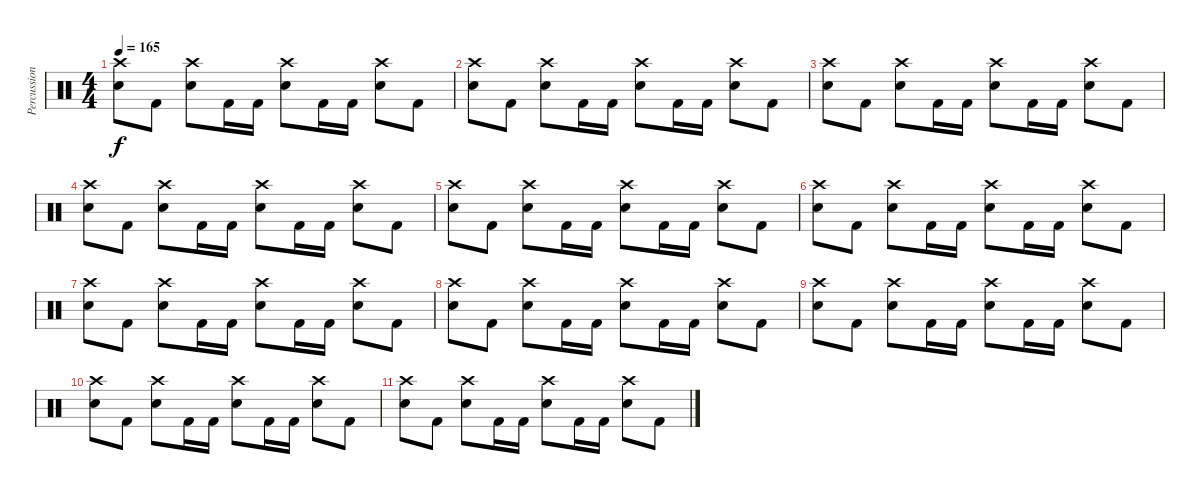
\track ("Percussion" "Percussion") {instrument percussion}
\staff {score}
\articulation defaults
\ts (4 4)
\tempo 165
\clef neutral
\ks c
("Crash high (hit)" "Electric Snare (hit)").8{dy f} "Kick (hit) 2".8 ("Crash high (hit)" "Electric Snare (hit)").8 "Kick (hit) 2".16 "Kick (hit) 2".16 ("Crash high (hit)" "Electric Snare (hit)").8 "Kick (hit) 2".16 "Kick (hit) 2".16 ("Crash high (hit)" "Electric Snare (hit)").8 "Kick (hit) 2".8 |
("Crash high (hit)" "Electric Snare (hit)").8 "Kick (hit) 2".8 ("Crash high (hit)" "Electric Snare (hit)").8 "Kick (hit) 2".16 "Kick (hit) 2".16 ("Crash high (hit)" "Electric Snare (hit)").8 "Kick (hit) 2".16 "Kick (hit) 2".16 ("Crash high (hit)" "Electric Snare (hit)").8 "Kick (hit) 2".8 |
("Crash high (hit)" "Electric Snare (hit)").8 "Kick (hit) 2".8 ("Crash high (hit)" "Electric Snare (hit)").8 "Kick (hit) 2".16 "Kick (hit) 2".16 ("Crash high (hit)" "Electric Snare (hit)").8 "Kick (hit) 2".16 "Kick (hit) 2".16 ("Crash high (hit)" "Electric Snare (hit)").8 "Kick (hit) 2".8 |
("Crash high (hit)" "Electric Snare (hit)").8 "Kick (hit) 2".8 ("Crash high (hit)" "Electric Snare (hit)").8 "Kick (hit) 2".16 "Kick (hit) 2".16 ("Crash high (hit)" "Electric Snare (hit)").8 "Kick (hit) 2".16 "Kick (hit) 2".16 ("Crash high (hit)" "Electric Snare (hit)").8 "Kick (hit) 2".8 |
("Crash high (hit)" "Electric Snare (hit)").8 "Kick (hit) 2".8 ("Crash high (hit)" "Electric Snare (hit)").8 "Kick (hit) 2".16 "Kick (hit) 2".16 ("Crash high (hit)" "Electric Snare (hit)").8 "Kick (hit) 2".16 "Kick (hit) 2".16 ("Crash high (hit)" "Electric Snare (hit)").8 "Kick (hit) 2".8 |
("Crash high (hit)" "Electric Snare (hit)").8 "Kick (hit) 2".8 ("Crash high (hit)" "Electric Snare (hit)").8 "Kick (hit) 2".16 "Kick (hit) 2".16 ("Crash high (hit)" "Electric Snare (hit)").8 "Kick (hit) 2".16 "Kick (hit) 2".16 ("Crash high (hit)" "Electric Snare (hit)").8 "Kick (hit) 2".8 |
("Crash high (hit)" "Electric Snare (hit)").8 "Kick (hit) 2".8 ("Crash high (hit)" "Electric Snare (hit)").8 "Kick (hit) 2".16 "Kick (hit) 2".16 ("Crash high (hit)" "Electric Snare (hit)").8 "Kick (hit) 2".16 "Kick (hit) 2".16 ("Crash high (hit)" "Electric Snare (hit)").8 "Kick (hit) 2".8 |
("Crash high (hit)" "Electric Snare (hit)").8 "Kick (hit) 2".8 ("Crash high (hit)" "Electric Snare (hit)").8 "Kick (hit) 2".16 "Kick (hit) 2".16 ("Crash high (hit)" "Electric Snare (hit)").8 "Kick (hit) 2".16 "Kick (hit) 2".16 ("Crash high (hit)" "Electric Snare (hit)").8 "Kick (hit) 2".8 |
("Crash high (hit)" "Electric Snare (hit)").8 "Kick (hit) 2".8 ("Crash high (hit)" "Electric Snare (hit)").8 "Kick (hit) 2".16 "Kick (hit) 2".16 ("Crash high (hit)" "Electric Snare (hit)").8 "Kick (hit) 2".16 "Kick (hit) 2".16 ("Crash high (hit)" "Electric Snare (hit)").8 "Kick (hit) 2".8 |
("Crash high (hit)" "Electric Snare (hit)").8 "Kick (hit) 2".8 ("Crash high (hit)" "Electric Snare (hit)").8 "Kick (hit) 2".16 "Kick (hit) 2".16 ("Crash high (hit)" "Electric Snare (hit)").8 "Kick (hit) 2".16 "Kick (hit) 2".16 ("Crash high (hit)" "Electric Snare (hit)").8 "Kick (hit) 2".8 |
("Crash high (hit)" "Electric Snare (hit)").8 "Kick (hit) 2".8 ("Crash high (hit)" "Electric Snare (hit)").8 "Kick (hit) 2".16 "Kick (hit) 2".16 ("Crash high (hit)" "Electric Snare (hit)").8 "Kick (hit) 2".16 "Kick (hit) 2".16 ("Crash high (hit)" "Electric Snare (hit)").8 "Kick (hit) 2".8
